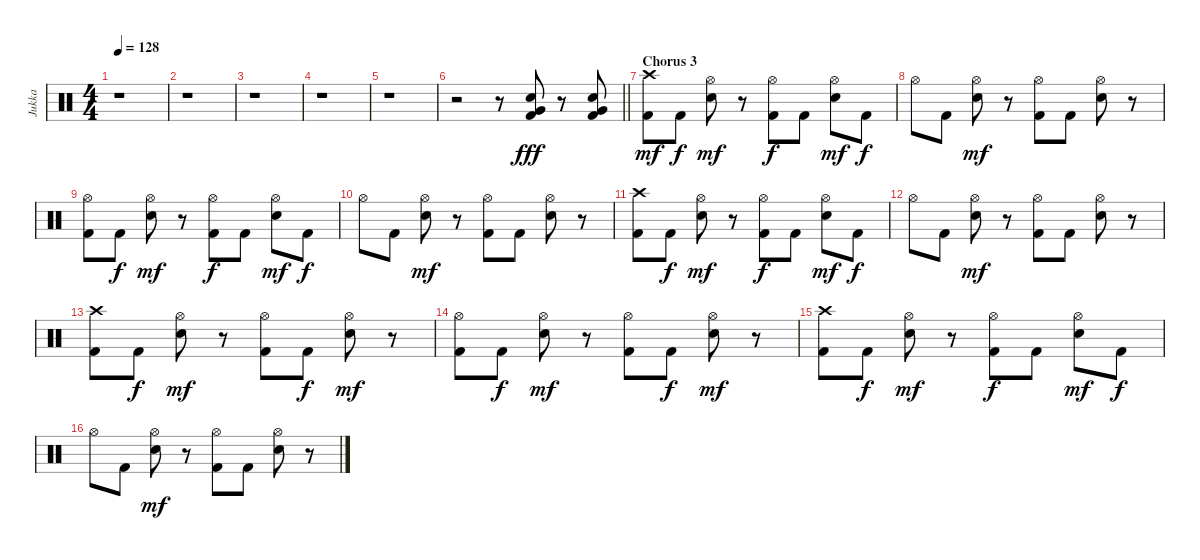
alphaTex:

\track ("Jukka" "Jukka") {instrument percussion}
\staff {score}
\articulation defaults
\ts (4 4)
\tempo 128
\clef neutral
\ks c
r.1{dy f} |
r.1 |
r.1 |
r.1 |
r.1 |
\barLineRight lightlight
r.2 r.8 ("Kick (hit) 2" "Electric Snare (hit)" "Very Low Tom (hit)").8{dy fff} r.8 ("Kick (hit) 2" "Electric Snare (hit)" "Very Low Tom (hit)").8 |
\section ("" "Chorus 3")
("Kick (hit) 2" "Crash high (hit)").8{dy mf} "Kick (hit) 2".8{dy f} ("Electric Snare (hit)" "Hi-Hat (open)").8{dy mf} r.8 ("Kick (hit) 2" "Hi-Hat (open)").8{dy f} "Kick (hit) 2".8 ("Electric Snare (hit)" "Hi-Hat (open)").8{dy mf} "Kick (hit) 2".8{dy f} |
"Hi-Hat (open)".8 "Kick (hit) 2".8 ("Electric Snare (hit)" "Hi-Hat (open)").8{dy mf} r.8 ("Kick (hit) 2" "Hi-Hat (open)").8 "Kick (hit) 2".8 ("Electric Snare (hit)" "Hi-Hat (open)").8 r.8 |
("Kick (hit) 2" "Hi-Hat (open)").8 "Kick (hit) 2".8{dy f} ("Electric Snare (hit)" "Hi-Hat (open)").8{dy mf} r.8 ("Kick (hit) 2" "Hi-Hat (open)").8{dy f} "Kick (hit) 2".8 ("Electric Snare (hit)" "Hi-Hat (open)").8{dy mf} "Kick (hit) 2".8{dy f} |
"Hi-Hat (open)".8 "Kick (hit) 2".8 ("Electric Snare (hit)" "Hi-Hat (open)").8{dy mf} r.8 ("Kick (hit) 2" "Hi-Hat (open)").8 "Kick (hit) 2".8 ("Electric Snare (hit)" "Hi-Hat (open)").8 r.8 |
("Kick (hit) 2" "Crash high (hit)").8 "Kick (hit) 2".8{dy f} ("Electric Snare (hit)" "Hi-Hat (open)").8{dy mf} r.8 ("Kick (hit) 2" "Hi-Hat (open)").8{dy f} "Kick (hit) 2".8 ("Electric Snare (hit)" "Hi-Hat (open)").8{dy mf} "Kick (hit) 2".8{dy f} |
"Hi-Hat (open)".8 "Kick (hit) 2".8 ("Electric Snare (hit)" "Hi-Hat (open)").8{dy mf} r.8 ("Kick (hit) 2" "Hi-Hat (open)").8 "Kick (hit) 2".8 ("Electric Snare (hit)" "Hi-Hat (open)").8 r.8 |
("Kick (hit) 2" "Crash high (hit)").8 "Kick (hit) 2".8{dy f} ("Electric Snare (hit)" "Hi-Hat (open)").8{dy mf} r.8 ("Kick (hit) 2" "Hi-Hat (open)").8 "Kick (hit) 2".8{dy f} ("Electric Snare (hit)" "Hi-Hat (open)").8{dy mf} r.8 |
("Kick (hit) 2" "Hi-Hat (open)").8 "Kick (hit) 2".8{dy f} ("Electric Snare (hit)" "Hi-Hat (open)").8{dy mf} r.8 ("Kick (hit) 2" "Hi-Hat (open)").8 "Kick (hit) 2".8{dy f} ("Electric Snare (hit)" "Hi-Hat (open)").8{dy mf} r.8 |
("Kick (hit) 2" "Crash high (hit)").8 "Kick (hit) 2".8{dy f} ("Electric Snare (hit)" "Hi-Hat (open)").8{dy mf} r.8 ("Kick (hit) 2" "Hi-Hat (open)").8{dy f} "Kick (hit) 2".8 ("Electric Snare (hit)" "Hi-Hat (open)").8{dy mf} "Kick (hit) 2".8{dy f} |
"Hi-Hat (open)".8 "Kick (hit) 2".8 ("Electric Snare (hit)" "Hi-Hat (open)").8{dy mf} r.8 ("Kick (hit) 2" "Hi-Hat (open)").8 "Kick (hit) 2".8 ("Electric Snare (hit)" "Hi-Hat (open)").8 r.8
